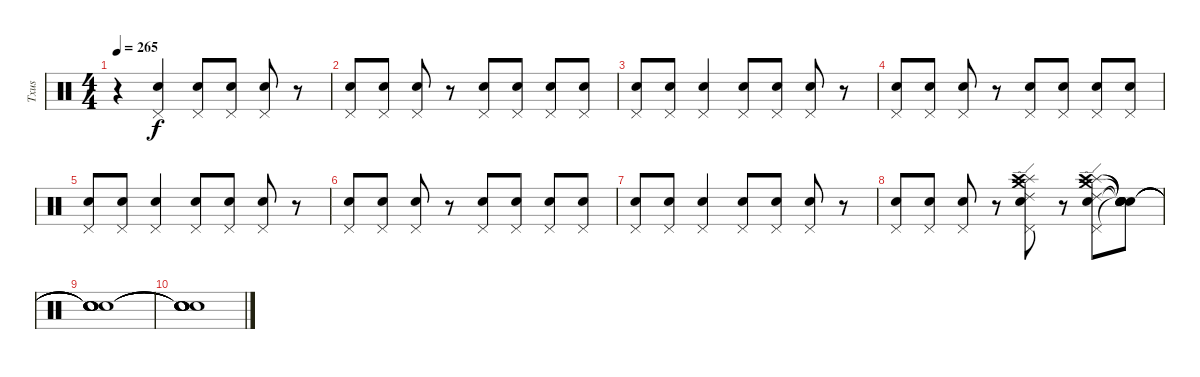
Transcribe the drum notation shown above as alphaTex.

\track ("Txus" "Txus") {instrument percussion}
\staff {score}
\articulation defaults
\ts (4 4)
\tempo 265
\clef neutral
\ks c
r.4{dy f} ("Snare (hit) 2" "Pedal Hi-Hat (hit)").4 ("Snare (hit) 2" "Pedal Hi-Hat (hit)").8 ("Snare (hit) 2" "Pedal Hi-Hat (hit)").8 ("Snare (hit) 2" "Pedal Hi-Hat (hit)").8 r.8 |
("Snare (hit) 2" "Pedal Hi-Hat (hit)").8 ("Snare (hit) 2" "Pedal Hi-Hat (hit)").8 ("Snare (hit) 2" "Pedal Hi-Hat (hit)").8 r.8 ("Snare (hit) 2" "Pedal Hi-Hat (hit)").8 ("Snare (hit) 2" "Pedal Hi-Hat (hit)").8 ("Snare (hit) 2" "Pedal Hi-Hat (hit)").8 ("Snare (hit) 2" "Pedal Hi-Hat (hit)").8 |
("Snare (hit) 2" "Pedal Hi-Hat (hit)").8 ("Snare (hit) 2" "Pedal Hi-Hat (hit)").8 ("Snare (hit) 2" "Pedal Hi-Hat (hit)").4 ("Snare (hit) 2" "Pedal Hi-Hat (hit)").8 ("Snare (hit) 2" "Pedal Hi-Hat (hit)").8 ("Snare (hit) 2" "Pedal Hi-Hat (hit)").8 r.8 |
("Snare (hit) 2" "Pedal Hi-Hat (hit)").8 ("Snare (hit) 2" "Pedal Hi-Hat (hit)").8 ("Snare (hit) 2" "Pedal Hi-Hat (hit)").8 r.8 ("Snare (hit) 2" "Pedal Hi-Hat (hit)").8 ("Snare (hit) 2" "Pedal Hi-Hat (hit)").8 ("Snare (hit) 2" "Pedal Hi-Hat (hit)").8 ("Snare (hit) 2" "Pedal Hi-Hat (hit)").8 |
("Snare (hit) 2" "Pedal Hi-Hat (hit)").8 ("Snare (hit) 2" "Pedal Hi-Hat (hit)").8 ("Snare (hit) 2" "Pedal Hi-Hat (hit)").4 ("Snare (hit) 2" "Pedal Hi-Hat (hit)").8 ("Snare (hit) 2" "Pedal Hi-Hat (hit)").8 ("Snare (hit) 2" "Pedal Hi-Hat (hit)").8 r.8 |
("Snare (hit) 2" "Pedal Hi-Hat (hit)").8 ("Snare (hit) 2" "Pedal Hi-Hat (hit)").8 ("Snare (hit) 2" "Pedal Hi-Hat (hit)").8 r.8 ("Snare (hit) 2" "Pedal Hi-Hat (hit)").8 ("Snare (hit) 2" "Pedal Hi-Hat (hit)").8 ("Snare (hit) 2" "Pedal Hi-Hat (hit)").8 ("Snare (hit) 2" "Pedal Hi-Hat (hit)").8 |
("Snare (hit) 2" "Pedal Hi-Hat (hit)").8 ("Snare (hit) 2" "Pedal Hi-Hat (hit)").8 ("Snare (hit) 2" "Pedal Hi-Hat (hit)").4 ("Snare (hit) 2" "Pedal Hi-Hat (hit)").8 ("Snare (hit) 2" "Pedal Hi-Hat (hit)").8 ("Snare (hit) 2" "Pedal Hi-Hat (hit)").8 r.8 |
("Snare (hit) 2" "Pedal Hi-Hat (hit)").8 ("Snare (hit) 2" "Pedal Hi-Hat (hit)").8 ("Snare (hit) 2" "Pedal Hi-Hat (hit)").8 r.8 ("Crash medium (hit)" "Ride (edge) 2" "Pedal Hi-Hat (hit)" "Splash (hit)" "Crash high (hit)" "Snare (hit) 2").8{volume 0} r.8 ("Crash medium (hit)" "Ride (edge) 2" "Pedal Hi-Hat (hit)" "Splash (hit)" "Crash high (hit)" "Snare (hit) 2").8 ("Snare (hit)"{t} "Snare (hit)"{t} "Snare (hit)"{t} "Snare (hit)"{t} "Snare (hit)"{t} "Snare (hit)"{t}).8 |
("Snare (hit)"{t} "Snare (hit)"{t} "Snare (hit)"{t} "Snare (hit)"{t} "Snare (hit)"{t} "Snare (hit)"{t}).1 |
("Snare (hit)"{t} "Snare (hit)"{t} "Snare (hit)"{t} "Snare (hit)"{t} "Snare (hit)"{t} "Snare (hit)"{t}).1
